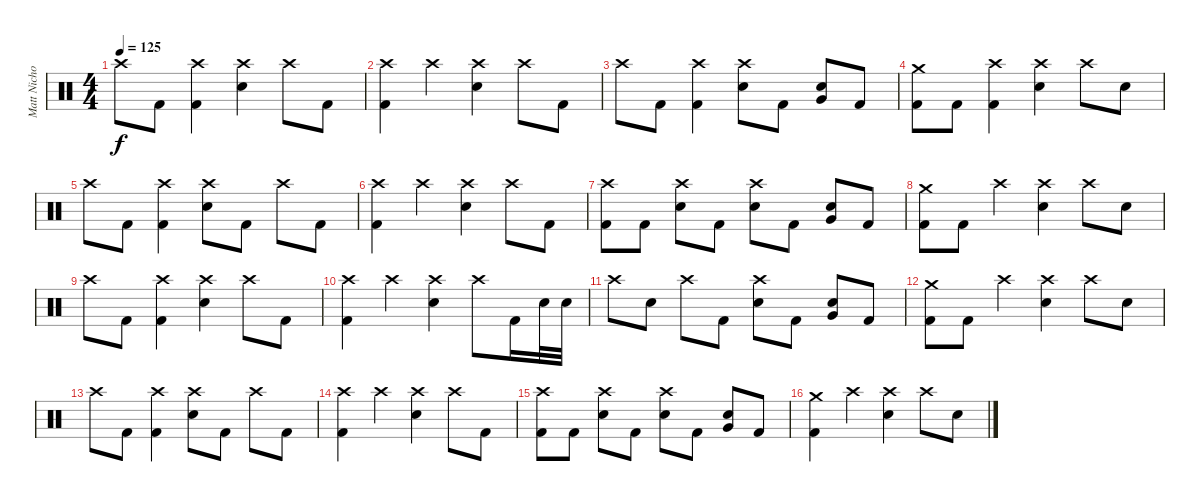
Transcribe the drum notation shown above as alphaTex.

\track ("Matt Nicholls" "Matt Nicho") {instrument percussion}
\staff {score}
\articulation defaults
\ts (4 4)
\tempo 125
\clef neutral
\ks c "Crash high (hit)".8{dy f} "Kick (hit) 2".8
("Crash high (hit)" "Kick (hit) 2").4 ("Crash high (hit)" "Electric Snare (hit)").4 "Crash high (hit)".8 "Kick (hit) 2".8 |
("Crash high (hit)" "Kick (hit) 2").4 "Crash high (hit)".4 ("Crash high (hit)" "Electric Snare (hit)").4 "Crash high (hit)".8 "Kick (hit) 2".8 |
"Crash high (hit)".8 "Kick (hit) 2".8 ("Crash high (hit)" "Kick (hit) 2").4 ("Crash high (hit)" "Electric Snare (hit)").8 "Kick (hit) 2".8 ("Electric Snare (hit)" "Very Low Tom (hit)").8 "Kick (hit) 2".8 |
("Crash medium (hit)" "Kick (hit) 2").8 "Kick (hit) 2".8 ("Crash high (hit)" "Kick (hit) 2").4 ("Crash high (hit)" "Electric Snare (hit)").4 "Crash high (hit)".8 "Electric Snare (hit)".8 |
"Crash high (hit)".8 "Kick (hit) 2".8 ("Crash high (hit)" "Kick (hit) 2").4 ("Crash high (hit)" "Electric Snare (hit)").8 "Kick (hit) 2".8 "Crash high (hit)".8 "Kick (hit) 2".8 |
("Crash high (hit)" "Kick (hit) 2").4 "Crash high (hit)".4 ("Crash high (hit)" "Electric Snare (hit)").4 "Crash high (hit)".8 "Kick (hit) 2".8 |
("Crash high (hit)" "Kick (hit) 2").8 "Kick (hit) 2".8 ("Crash high (hit)" "Electric Snare (hit)").8 "Kick (hit) 2".8 ("Crash high (hit)" "Electric Snare (hit)").8 "Kick (hit) 2".8 ("Electric Snare (hit)" "Very Low Tom (hit)").8 "Kick (hit) 2".8 |
("Crash medium (hit)" "Kick (hit) 2").8 "Kick (hit) 2".8 "Crash high (hit)".4 ("Crash high (hit)" "Electric Snare (hit)").4 "Crash high (hit)".8 "Electric Snare (hit)".8 |
"Crash high (hit)".8 "Kick (hit) 2".8 ("Crash high (hit)" "Kick (hit) 2").4 ("Crash high (hit)" "Electric Snare (hit)").4 "Crash high (hit)".8 "Kick (hit) 2".8 |
("Crash high (hit)" "Kick (hit) 2").4 "Crash high (hit)".4 ("Crash high (hit)" "Electric Snare (hit)").4 "Crash high (hit)".8 "Kick (hit) 2".16 "Electric Snare (hit)".32 "Electric Snare (hit)".32 |
"Crash high (hit)".8 "Electric Snare (hit)".8 "Crash high (hit)".8 "Kick (hit) 2".8 ("Crash high (hit)" "Electric Snare (hit)").8 "Kick (hit) 2".8 ("Electric Snare (hit)" "Very Low Tom (hit)").8 "Kick (hit) 2".8 |
("Crash medium (hit)" "Kick (hit) 2").8 "Kick (hit) 2".8 "Crash high (hit)".4 ("Crash high (hit)" "Electric Snare (hit)").4 "Crash high (hit)".8 "Electric Snare (hit)".8 |
"Crash high (hit)".8 "Kick (hit) 2".8 ("Crash high (hit)" "Kick (hit) 2").4 ("Crash high (hit)" "Electric Snare (hit)").8 "Kick (hit) 2".8 "Crash high (hit)".8 "Kick (hit) 2".8 |
("Crash high (hit)" "Kick (hit) 2").4 "Crash high (hit)".4 ("Crash high (hit)" "Electric Snare (hit)").4 "Crash high (hit)".8 "Kick (hit) 2".8 |
("Crash high (hit)" "Kick (hit) 2").8 "Kick (hit) 2".8 ("Crash high (hit)" "Electric Snare (hit)").8 "Kick (hit) 2".8 ("Crash high (hit)" "Electric Snare (hit)").8 "Kick (hit) 2".8 ("Electric Snare (hit)" "Very Low Tom (hit)").8 "Kick (hit) 2".8 |
("Crash medium (hit)" "Kick (hit) 2").4 "Crash high (hit)".4 ("Crash high (hit)" "Electric Snare (hit)").4 "Crash high (hit)".8 "Electric Snare (hit)".8
